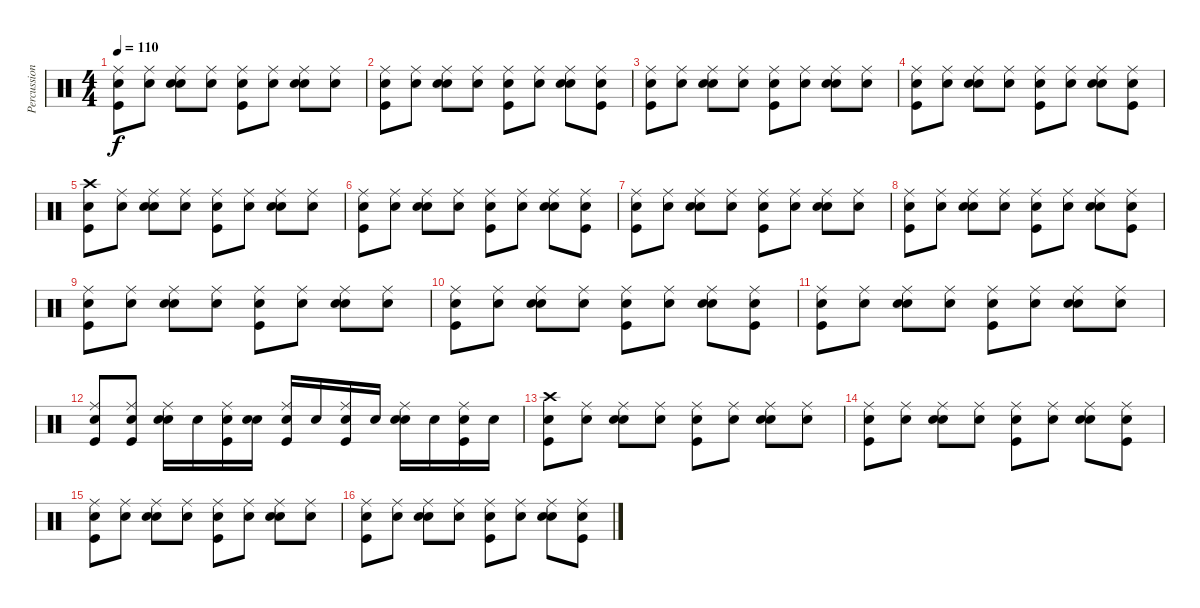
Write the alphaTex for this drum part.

\track ("Percussion" "Percussion") {instrument percussion}
\staff {score}
\articulation defaults
\ts (4 4)
\tempo 110
\clef neutral
\ks c
("Snare (hit)" "Ride (middle)" "Kick (hit)").8{dy f} ("Snare (hit)" "Ride (middle)").8 ("Snare (hit)" "Ride (middle)" "Snare (hit) 2").8 ("Snare (hit)" "Ride (middle)").8 ("Snare (hit)" "Ride (middle)" "Kick (hit)").8 ("Snare (hit)" "Ride (middle)").8 ("Snare (hit)" "Ride (middle)" "Snare (hit) 2").8 ("Snare (hit)" "Ride (middle)").8 |
("Snare (hit)" "Ride (middle)" "Kick (hit)").8 ("Snare (hit)" "Ride (middle)").8 ("Snare (hit)" "Ride (middle)" "Snare (hit) 2").8 ("Snare (hit)" "Ride (middle)").8 ("Snare (hit)" "Ride (middle)" "Kick (hit)").8 ("Snare (hit)" "Ride (middle)").8 ("Snare (hit)" "Ride (middle)" "Snare (hit) 2").8 ("Snare (hit)" "Ride (middle)" "Kick (hit)").8 |
("Snare (hit)" "Ride (middle)" "Kick (hit)").8 ("Snare (hit)" "Ride (middle)").8 ("Snare (hit)" "Ride (middle)" "Snare (hit) 2").8 ("Snare (hit)" "Ride (middle)").8 ("Snare (hit)" "Ride (middle)" "Kick (hit)").8 ("Snare (hit)" "Ride (middle)").8 ("Snare (hit)" "Ride (middle)" "Snare (hit) 2").8 ("Snare (hit)" "Ride (middle)").8 |
("Snare (hit)" "Ride (middle)" "Kick (hit)").8 ("Snare (hit)" "Ride (middle)").8 ("Snare (hit)" "Ride (middle)" "Snare (hit) 2").8 ("Snare (hit)" "Ride (middle)").8 ("Snare (hit)" "Ride (middle)" "Kick (hit)").8 ("Snare (hit)" "Ride (middle)").8 ("Snare (hit)" "Ride (middle)" "Snare (hit) 2").8 ("Snare (hit)" "Ride (middle)" "Kick (hit)").8 |
("Snare (hit)" "Crash high (hit)" "Kick (hit)").8 ("Snare (hit)" "Ride (middle)").8 ("Snare (hit)" "Ride (middle)" "Snare (hit) 2").8 ("Snare (hit)" "Ride (middle)").8 ("Snare (hit)" "Ride (middle)" "Kick (hit)").8 ("Snare (hit)" "Ride (middle)").8 ("Snare (hit)" "Ride (middle)" "Snare (hit) 2").8 ("Snare (hit)" "Ride (middle)").8 |
("Snare (hit)" "Ride (middle)" "Kick (hit)").8 ("Snare (hit)" "Ride (middle)").8 ("Snare (hit)" "Ride (middle)" "Snare (hit) 2").8 ("Snare (hit)" "Ride (middle)").8 ("Snare (hit)" "Ride (middle)" "Kick (hit)").8 ("Snare (hit)" "Ride (middle)").8 ("Snare (hit)" "Ride (middle)" "Snare (hit) 2").8 ("Snare (hit)" "Ride (middle)" "Kick (hit)").8 |
("Snare (hit)" "Ride (middle)" "Kick (hit)").8 ("Snare (hit)" "Ride (middle)").8 ("Snare (hit)" "Ride (middle)" "Snare (hit) 2").8 ("Snare (hit)" "Ride (middle)").8 ("Snare (hit)" "Ride (middle)" "Kick (hit)").8 ("Snare (hit)" "Ride (middle)").8 ("Snare (hit)" "Ride (middle)" "Snare (hit) 2").8 ("Snare (hit)" "Ride (middle)").8 |
("Snare (hit)" "Ride (middle)" "Kick (hit)").8 ("Snare (hit)" "Ride (middle)").8 ("Snare (hit)" "Ride (middle)" "Snare (hit) 2").8 ("Snare (hit)" "Ride (middle)").8 ("Snare (hit)" "Ride (middle)" "Kick (hit)").8 ("Snare (hit)" "Ride (middle)").8 ("Snare (hit)" "Ride (middle)" "Snare (hit) 2").8 ("Snare (hit)" "Ride (middle)" "Kick (hit)").8 |
("Snare (hit)" "Ride (middle)" "Kick (hit)").8 ("Snare (hit)" "Ride (middle)").8 ("Snare (hit)" "Ride (middle)" "Snare (hit) 2").8 ("Snare (hit)" "Ride (middle)").8 ("Snare (hit)" "Ride (middle)" "Kick (hit)").8 ("Snare (hit)" "Ride (middle)").8 ("Snare (hit)" "Ride (middle)" "Snare (hit) 2").8 ("Snare (hit)" "Ride (middle)").8 |
("Snare (hit)" "Ride (middle)" "Kick (hit)").8 ("Snare (hit)" "Ride (middle)").8 ("Snare (hit)" "Ride (middle)" "Snare (hit) 2").8 ("Snare (hit)" "Ride (middle)").8 ("Snare (hit)" "Ride (middle)" "Kick (hit)").8 ("Snare (hit)" "Ride (middle)").8 ("Snare (hit)" "Ride (middle)" "Snare (hit) 2").8 ("Snare (hit)" "Ride (middle)" "Kick (hit)").8 |
("Snare (hit)" "Ride (middle)" "Kick (hit)").8 ("Snare (hit)" "Ride (middle)").8 ("Snare (hit)" "Ride (middle)" "Snare (hit) 2").8 ("Snare (hit)" "Ride (middle)").8 ("Snare (hit)" "Ride (middle)" "Kick (hit)").8 ("Snare (hit)" "Ride (middle)").8 ("Snare (hit)" "Ride (middle)" "Snare (hit) 2").8 ("Snare (hit)" "Ride (middle)").8 |
("Snare (hit)" "Ride (middle)" "Kick (hit)").8 ("Snare (hit)" "Ride (middle)" "Kick (hit)").8 ("Snare (hit)" "Ride (middle)" "Snare (hit) 2").16 "Snare (hit)".16 ("Snare (hit)" "Ride (middle)" "Kick (hit)").16 ("Snare (hit)" "Snare (hit) 2").16 ("Snare (hit)" "Ride (middle)" "Kick (hit)").16 "Snare (hit)".16 ("Snare (hit)" "Ride (middle)" "Kick (hit)").16 "Snare (hit)".16 ("Snare (hit)" "Ride (middle)" "Snare (hit) 2").16 "Snare (hit)".16 ("Snare (hit)" "Ride (middle)" "Kick (hit)").16 "Snare (hit)".16 |
("Snare (hit)" "Crash high (hit)" "Kick (hit)").8 ("Snare (hit)" "Ride (middle)").8 ("Snare (hit)" "Ride (middle)" "Snare (hit) 2").8 ("Snare (hit)" "Ride (middle)").8 ("Snare (hit)" "Ride (middle)" "Kick (hit)").8 ("Snare (hit)" "Ride (middle)").8 ("Snare (hit)" "Ride (middle)" "Snare (hit) 2").8 ("Snare (hit)" "Ride (middle)").8 |
("Snare (hit)" "Ride (middle)" "Kick (hit)").8 ("Snare (hit)" "Ride (middle)").8 ("Snare (hit)" "Ride (middle)" "Snare (hit) 2").8 ("Snare (hit)" "Ride (middle)").8 ("Snare (hit)" "Ride (middle)" "Kick (hit)").8 ("Snare (hit)" "Ride (middle)").8 ("Snare (hit)" "Ride (middle)" "Snare (hit) 2").8 ("Snare (hit)" "Ride (middle)" "Kick (hit)").8 |
("Snare (hit)" "Ride (middle)" "Kick (hit)").8 ("Snare (hit)" "Ride (middle)").8 ("Snare (hit)" "Ride (middle)" "Snare (hit) 2").8 ("Snare (hit)" "Ride (middle)").8 ("Snare (hit)" "Ride (middle)" "Kick (hit)").8 ("Snare (hit)" "Ride (middle)").8 ("Snare (hit)" "Ride (middle)" "Snare (hit) 2").8 ("Snare (hit)" "Ride (middle)").8 |
("Snare (hit)" "Ride (middle)" "Kick (hit)").8 ("Snare (hit)" "Ride (middle)").8 ("Snare (hit)" "Ride (middle)" "Snare (hit) 2").8 ("Snare (hit)" "Ride (middle)").8 ("Snare (hit)" "Ride (middle)" "Kick (hit)").8 ("Snare (hit)" "Ride (middle)").8 ("Snare (hit)" "Ride (middle)" "Snare (hit) 2").8 ("Snare (hit)" "Ride (middle)" "Kick (hit)").8
